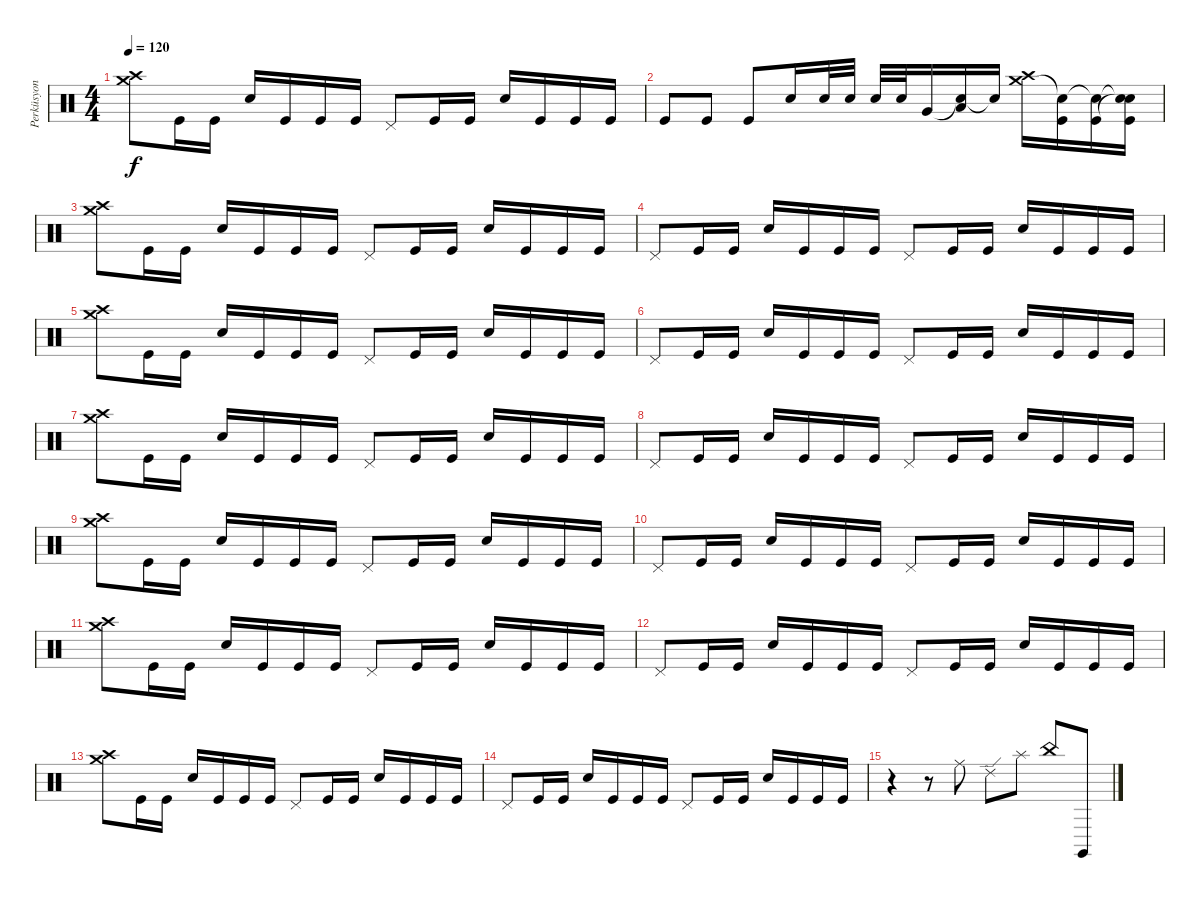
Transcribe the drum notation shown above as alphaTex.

\track ("Perküsyon" "Perküsyon") {instrument percussion}
\staff {score}
\articulation defaults
\ts (4 4)
\tempo 120
\clef neutral
\ks c
("Crash high (hit)" "Crash medium (hit)").8{dy f} "Kick (hit)".16 "Kick (hit)".16 "Snare (hit) 2".16 "Kick (hit)".16 "Kick (hit)".16 "Kick (hit)".16 "Pedal Hi-Hat (hit)".8 "Kick (hit)".16 "Kick (hit)".16 "Snare (hit) 2".16 "Kick (hit)".16 "Kick (hit)".16 "Kick (hit)".16 |
"Kick (hit)".8 "Kick (hit)".8 "Kick (hit)".8 "Snare (hit) 2".16 "Electric Snare (hit)".32 "Electric Snare (hit)".32 "Electric Snare (hit)".32 "Electric Snare (hit)".32 "Very Low Tom (hit)".16 ("Snare (hit)"{t} "Low Floor Tom (hit)").16 "Snare (hit)"{t}.16 ("Crash medium (hit)" "Crash high (hit)").16 ("Snare (hit)"{t} "Kick (hit)").16 ("Snare (hit)"{t} "Kick (hit)").16 ("Snare (hit)"{t} "Snare (hit)"{t} "Kick (hit)").16 |
("Crash high (hit)" "Crash medium (hit)").8 "Kick (hit)".16 "Kick (hit)".16 "Snare (hit) 2".16 "Kick (hit)".16 "Kick (hit)".16 "Kick (hit)".16 "Pedal Hi-Hat (hit)".8 "Kick (hit)".16 "Kick (hit)".16 "Snare (hit) 2".16 "Kick (hit)".16 "Kick (hit)".16 "Kick (hit)".16 |
"Pedal Hi-Hat (hit)".8 "Kick (hit)".16 "Kick (hit)".16 "Snare (hit) 2".16 "Kick (hit)".16 "Kick (hit)".16 "Kick (hit)".16 "Pedal Hi-Hat (hit)".8 "Kick (hit)".16 "Kick (hit)".16 "Snare (hit) 2".16 "Kick (hit)".16 "Kick (hit)".16 "Kick (hit)".16 |
("Crash high (hit)" "Crash medium (hit)").8 "Kick (hit)".16 "Kick (hit)".16 "Snare (hit) 2".16 "Kick (hit)".16 "Kick (hit)".16 "Kick (hit)".16 "Pedal Hi-Hat (hit)".8 "Kick (hit)".16 "Kick (hit)".16 "Snare (hit) 2".16 "Kick (hit)".16 "Kick (hit)".16 "Kick (hit)".16 |
"Pedal Hi-Hat (hit)".8 "Kick (hit)".16 "Kick (hit)".16 "Snare (hit) 2".16 "Kick (hit)".16 "Kick (hit)".16 "Kick (hit)".16 "Pedal Hi-Hat (hit)".8 "Kick (hit)".16 "Kick (hit)".16 "Snare (hit) 2".16 "Kick (hit)".16 "Kick (hit)".16 "Kick (hit)".16 |
("Crash high (hit)" "Crash medium (hit)").8 "Kick (hit)".16 "Kick (hit)".16 "Snare (hit) 2".16 "Kick (hit)".16 "Kick (hit)".16 "Kick (hit)".16 "Pedal Hi-Hat (hit)".8 "Kick (hit)".16 "Kick (hit)".16 "Snare (hit) 2".16 "Kick (hit)".16 "Kick (hit)".16 "Kick (hit)".16 |
"Pedal Hi-Hat (hit)".8 "Kick (hit)".16 "Kick (hit)".16 "Snare (hit) 2".16 "Kick (hit)".16 "Kick (hit)".16 "Kick (hit)".16 "Pedal Hi-Hat (hit)".8 "Kick (hit)".16 "Kick (hit)".16 "Snare (hit) 2".16 "Kick (hit)".16 "Kick (hit)".16 "Kick (hit)".16 |
("Crash high (hit)" "Crash medium (hit)").8 "Kick (hit)".16 "Kick (hit)".16 "Snare (hit) 2".16 "Kick (hit)".16 "Kick (hit)".16 "Kick (hit)".16 "Pedal Hi-Hat (hit)".8 "Kick (hit)".16 "Kick (hit)".16 "Snare (hit) 2".16 "Kick (hit)".16 "Kick (hit)".16 "Kick (hit)".16 |
"Pedal Hi-Hat (hit)".8 "Kick (hit)".16 "Kick (hit)".16 "Snare (hit) 2".16 "Kick (hit)".16 "Kick (hit)".16 "Kick (hit)".16 "Pedal Hi-Hat (hit)".8 "Kick (hit)".16 "Kick (hit)".16 "Snare (hit) 2".16 "Kick (hit)".16 "Kick (hit)".16 "Kick (hit)".16 |
("Crash high (hit)" "Crash medium (hit)").8 "Kick (hit)".16 "Kick (hit)".16 "Snare (hit) 2".16 "Kick (hit)".16 "Kick (hit)".16 "Kick (hit)".16 "Pedal Hi-Hat (hit)".8 "Kick (hit)".16 "Kick (hit)".16 "Snare (hit) 2".16 "Kick (hit)".16 "Kick (hit)".16 "Kick (hit)".16 |
"Pedal Hi-Hat (hit)".8 "Kick (hit)".16 "Kick (hit)".16 "Snare (hit) 2".16 "Kick (hit)".16 "Kick (hit)".16 "Kick (hit)".16 "Pedal Hi-Hat (hit)".8 "Kick (hit)".16 "Kick (hit)".16 "Snare (hit) 2".16 "Kick (hit)".16 "Kick (hit)".16 "Kick (hit)".16 |
("Crash high (hit)" "Crash medium (hit)").8 "Kick (hit)".16 "Kick (hit)".16 "Snare (hit) 2".16 "Kick (hit)".16 "Kick (hit)".16 "Kick (hit)".16 "Pedal Hi-Hat (hit)".8 "Kick (hit)".16 "Kick (hit)".16 "Snare (hit) 2".16 "Kick (hit)".16 "Kick (hit)".16 "Kick (hit)".16 |
"Pedal Hi-Hat (hit)".8 "Kick (hit)".16 "Kick (hit)".16 "Snare (hit) 2".16 "Kick (hit)".16 "Kick (hit)".16 "Kick (hit)".16 "Pedal Hi-Hat (hit)".8 "Kick (hit)".16 "Kick (hit)".16 "Snare (hit) 2".16 "Kick (hit)".16 "Kick (hit)".16 "Kick (hit)".16 |
r.4 r.8 "Ride (middle)".8 "Ride (edge) 2".8 "Splash (hit)".8 "China (hit)".8 "Claves (hit)".8
